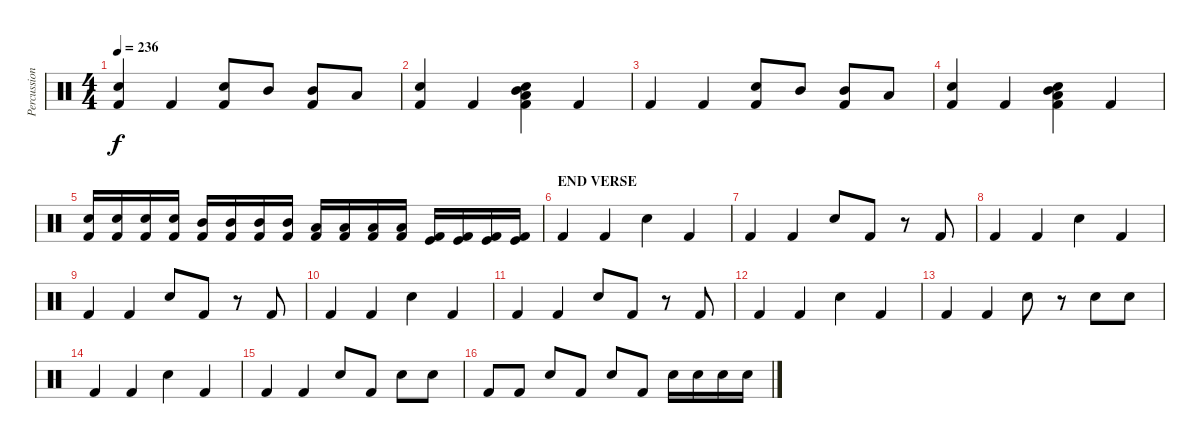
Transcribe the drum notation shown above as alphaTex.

\track ("Percussions" "Percussion") {instrument percussion}
\staff {score}
\articulation defaults
\ts (4 4)
\tempo 236
\clef neutral
\ks c
("Snare (hit) 2" "Kick (hit) 2").4{dy f} "Kick (hit) 2".4 ("Snare (hit) 2" "Kick (hit) 2").8 "Mid Tom (hit)".8 ("Mid Tom (hit)" "Kick (hit) 2").8 "Low Tom (hit)".8 |
("Snare (hit) 2" "Kick (hit) 2").4 "Kick (hit) 2".4 ("Snare (hit) 2" "Low Tom (hit)" "Mid Tom (hit)" "Kick (hit) 2").4 "Kick (hit) 2".4 |
"Kick (hit) 2".4 "Kick (hit) 2".4 ("Snare (hit) 2" "Kick (hit) 2").8 "Mid Tom (hit)".8 ("Mid Tom (hit)" "Kick (hit) 2").8 "Low Tom (hit)".8 |
("Snare (hit) 2" "Kick (hit) 2").4 "Kick (hit) 2".4 ("Snare (hit) 2" "Low Tom (hit)" "Mid Tom (hit)" "Kick (hit) 2").4 "Kick (hit) 2".4 |
("Snare (hit) 2" "Kick (hit) 2").16 ("Snare (hit) 2" "Kick (hit) 2").16 ("Snare (hit) 2" "Kick (hit) 2").16 ("Snare (hit) 2" "Kick (hit) 2").16 ("Mid Tom (hit)" "Kick (hit) 2").16 ("Mid Tom (hit)" "Kick (hit) 2").16 ("Mid Tom (hit)" "Kick (hit) 2").16 ("Mid Tom (hit)" "Kick (hit) 2").16 ("Low Tom (hit)" "Kick (hit) 2").16 ("Low Tom (hit)" "Kick (hit) 2").16 ("Low Tom (hit)" "Kick (hit) 2").16 ("Low Tom (hit)" "Kick (hit) 2").16 ("Kick (hit)" "Kick (hit) 2").16 ("Kick (hit)" "Kick (hit) 2").16 ("Kick (hit)" "Kick (hit) 2").16 ("Kick (hit)" "Kick (hit) 2").16 |
\section ("" "END VERSE")
"Kick (hit) 2".4 "Kick (hit) 2".4 "Snare (hit) 2".4 "Kick (hit) 2".4 |
"Kick (hit) 2".4 "Kick (hit) 2".4 "Snare (hit) 2".8 "Kick (hit) 2".8 r.8 "Kick (hit) 2".8 |
"Kick (hit) 2".4 "Kick (hit) 2".4 "Snare (hit) 2".4 "Kick (hit) 2".4 |
"Kick (hit) 2".4 "Kick (hit) 2".4 "Snare (hit) 2".8 "Kick (hit) 2".8 r.8 "Kick (hit) 2".8 |
"Kick (hit) 2".4 "Kick (hit) 2".4 "Snare (hit) 2".4 "Kick (hit) 2".4 |
"Kick (hit) 2".4 "Kick (hit) 2".4 "Snare (hit) 2".8 "Kick (hit) 2".8 r.8 "Kick (hit) 2".8 |
"Kick (hit) 2".4 "Kick (hit) 2".4 "Snare (hit) 2".4 "Kick (hit) 2".4 |
"Kick (hit) 2".4 "Kick (hit) 2".4 "Snare (hit) 2".8 r.8 "Snare (hit) 2".8 "Snare (hit) 2".8 |
"Kick (hit) 2".4 "Kick (hit) 2".4 "Snare (hit) 2".4 "Kick (hit) 2".4 |
"Kick (hit) 2".4 "Kick (hit) 2".4 "Snare (hit) 2".8 "Kick (hit) 2".8 "Snare (hit) 2".8 "Snare (hit) 2".8 |
"Kick (hit) 2".8 "Kick (hit) 2".8 "Snare (hit) 2".8 "Kick (hit) 2".8 "Snare (hit) 2".8 "Kick (hit) 2".8 "Snare (hit) 2".16 "Snare (hit) 2".16 "Snare (hit) 2".16 "Snare (hit) 2".16
